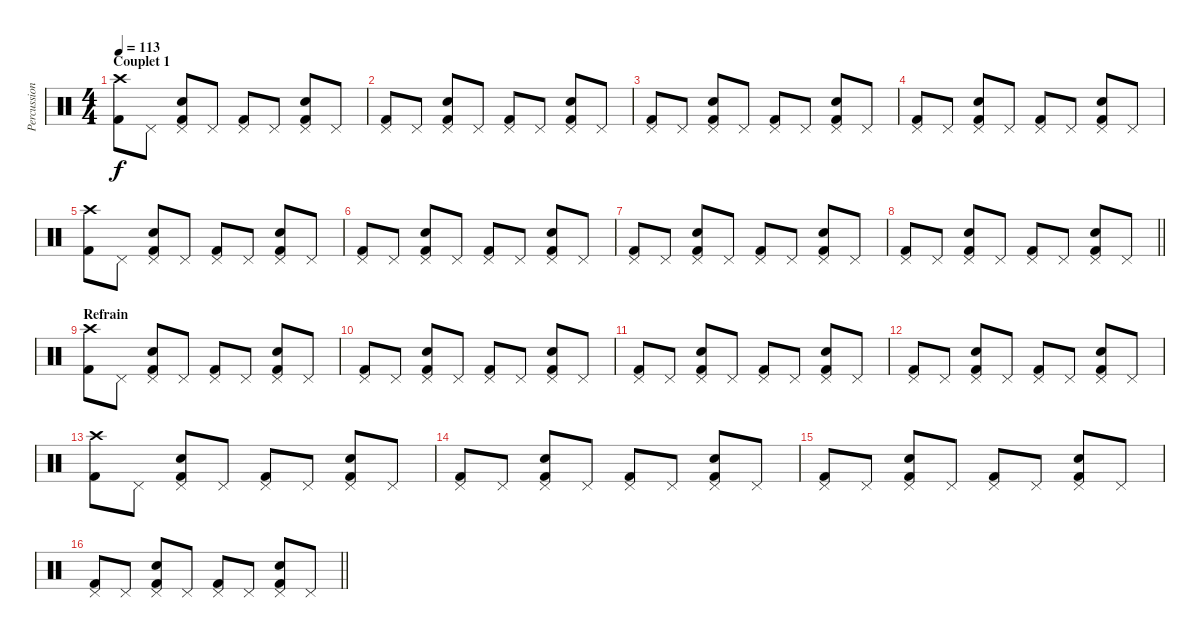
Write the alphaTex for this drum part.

\track ("Percussions" "Percussion") {instrument percussion}
\staff {score}
\articulation defaults
\ts (4 4)
\section ("" "Couplet 1")
\tempo 113
\clef neutral
\ks c
("Crash high (hit)" "Kick (hit) 2").8{dy f} "Pedal Hi-Hat (hit)".8 ("Pedal Hi-Hat (hit)" "Electric Snare (hit)" "Kick (hit) 2").8 "Pedal Hi-Hat (hit)".8 ("Pedal Hi-Hat (hit)" "Kick (hit) 2").8 "Pedal Hi-Hat (hit)".8 ("Pedal Hi-Hat (hit)" "Electric Snare (hit)" "Kick (hit) 2").8 "Pedal Hi-Hat (hit)".8 |
("Pedal Hi-Hat (hit)" "Kick (hit) 2").8 "Pedal Hi-Hat (hit)".8 ("Pedal Hi-Hat (hit)" "Electric Snare (hit)" "Kick (hit) 2").8 "Pedal Hi-Hat (hit)".8 ("Pedal Hi-Hat (hit)" "Kick (hit) 2").8 "Pedal Hi-Hat (hit)".8 ("Pedal Hi-Hat (hit)" "Electric Snare (hit)" "Kick (hit) 2").8 "Pedal Hi-Hat (hit)".8 |
("Pedal Hi-Hat (hit)" "Kick (hit) 2").8 "Pedal Hi-Hat (hit)".8 ("Pedal Hi-Hat (hit)" "Electric Snare (hit)" "Kick (hit) 2").8 "Pedal Hi-Hat (hit)".8 ("Pedal Hi-Hat (hit)" "Kick (hit) 2").8 "Pedal Hi-Hat (hit)".8 ("Pedal Hi-Hat (hit)" "Electric Snare (hit)" "Kick (hit) 2").8 "Pedal Hi-Hat (hit)".8 |
("Pedal Hi-Hat (hit)" "Kick (hit) 2").8 "Pedal Hi-Hat (hit)".8 ("Pedal Hi-Hat (hit)" "Electric Snare (hit)" "Kick (hit) 2").8 "Pedal Hi-Hat (hit)".8 ("Pedal Hi-Hat (hit)" "Kick (hit) 2").8 "Pedal Hi-Hat (hit)".8 ("Pedal Hi-Hat (hit)" "Electric Snare (hit)" "Kick (hit) 2").8 "Pedal Hi-Hat (hit)".8 |
("Crash high (hit)" "Kick (hit) 2").8 "Pedal Hi-Hat (hit)".8 ("Pedal Hi-Hat (hit)" "Electric Snare (hit)" "Kick (hit) 2").8 "Pedal Hi-Hat (hit)".8 ("Pedal Hi-Hat (hit)" "Kick (hit) 2").8 "Pedal Hi-Hat (hit)".8 ("Pedal Hi-Hat (hit)" "Electric Snare (hit)" "Kick (hit) 2").8 "Pedal Hi-Hat (hit)".8 |
("Pedal Hi-Hat (hit)" "Kick (hit) 2").8 "Pedal Hi-Hat (hit)".8 ("Pedal Hi-Hat (hit)" "Electric Snare (hit)" "Kick (hit) 2").8 "Pedal Hi-Hat (hit)".8 ("Pedal Hi-Hat (hit)" "Kick (hit) 2").8 "Pedal Hi-Hat (hit)".8 ("Pedal Hi-Hat (hit)" "Electric Snare (hit)" "Kick (hit) 2").8 "Pedal Hi-Hat (hit)".8 |
("Pedal Hi-Hat (hit)" "Kick (hit) 2").8 "Pedal Hi-Hat (hit)".8 ("Pedal Hi-Hat (hit)" "Electric Snare (hit)" "Kick (hit) 2").8 "Pedal Hi-Hat (hit)".8 ("Pedal Hi-Hat (hit)" "Kick (hit) 2").8 "Pedal Hi-Hat (hit)".8 ("Pedal Hi-Hat (hit)" "Electric Snare (hit)" "Kick (hit) 2").8 "Pedal Hi-Hat (hit)".8 |
\barLineRight lightlight
("Pedal Hi-Hat (hit)" "Kick (hit) 2").8 "Pedal Hi-Hat (hit)".8 ("Pedal Hi-Hat (hit)" "Electric Snare (hit)" "Kick (hit) 2").8 "Pedal Hi-Hat (hit)".8 ("Pedal Hi-Hat (hit)" "Kick (hit) 2").8 "Pedal Hi-Hat (hit)".8 ("Pedal Hi-Hat (hit)" "Electric Snare (hit)" "Kick (hit) 2").8 "Pedal Hi-Hat (hit)".8 |
\section ("" "Refrain")
("Crash high (hit)" "Kick (hit) 2").8 "Pedal Hi-Hat (hit)".8 ("Pedal Hi-Hat (hit)" "Electric Snare (hit)" "Kick (hit) 2").8 "Pedal Hi-Hat (hit)".8 ("Pedal Hi-Hat (hit)" "Kick (hit) 2").8 "Pedal Hi-Hat (hit)".8 ("Pedal Hi-Hat (hit)" "Electric Snare (hit)" "Kick (hit) 2").8 "Pedal Hi-Hat (hit)".8 |
("Pedal Hi-Hat (hit)" "Kick (hit) 2").8 "Pedal Hi-Hat (hit)".8 ("Pedal Hi-Hat (hit)" "Electric Snare (hit)" "Kick (hit) 2").8 "Pedal Hi-Hat (hit)".8 ("Pedal Hi-Hat (hit)" "Kick (hit) 2").8 "Pedal Hi-Hat (hit)".8 ("Pedal Hi-Hat (hit)" "Electric Snare (hit)" "Kick (hit) 2").8 "Pedal Hi-Hat (hit)".8 |
("Pedal Hi-Hat (hit)" "Kick (hit) 2").8 "Pedal Hi-Hat (hit)".8 ("Pedal Hi-Hat (hit)" "Electric Snare (hit)" "Kick (hit) 2").8 "Pedal Hi-Hat (hit)".8 ("Pedal Hi-Hat (hit)" "Kick (hit) 2").8 "Pedal Hi-Hat (hit)".8 ("Pedal Hi-Hat (hit)" "Electric Snare (hit)" "Kick (hit) 2").8 "Pedal Hi-Hat (hit)".8 |
("Pedal Hi-Hat (hit)" "Kick (hit) 2").8 "Pedal Hi-Hat (hit)".8 ("Pedal Hi-Hat (hit)" "Electric Snare (hit)" "Kick (hit) 2").8 "Pedal Hi-Hat (hit)".8 ("Pedal Hi-Hat (hit)" "Kick (hit) 2").8 "Pedal Hi-Hat (hit)".8 ("Pedal Hi-Hat (hit)" "Electric Snare (hit)" "Kick (hit) 2").8 "Pedal Hi-Hat (hit)".8 |
("Crash high (hit)" "Kick (hit) 2").8 "Pedal Hi-Hat (hit)".8 ("Pedal Hi-Hat (hit)" "Electric Snare (hit)" "Kick (hit) 2").8 "Pedal Hi-Hat (hit)".8 ("Pedal Hi-Hat (hit)" "Kick (hit) 2").8 "Pedal Hi-Hat (hit)".8 ("Pedal Hi-Hat (hit)" "Electric Snare (hit)" "Kick (hit) 2").8 "Pedal Hi-Hat (hit)".8 |
("Pedal Hi-Hat (hit)" "Kick (hit) 2").8 "Pedal Hi-Hat (hit)".8 ("Pedal Hi-Hat (hit)" "Electric Snare (hit)" "Kick (hit) 2").8 "Pedal Hi-Hat (hit)".8 ("Pedal Hi-Hat (hit)" "Kick (hit) 2").8 "Pedal Hi-Hat (hit)".8 ("Pedal Hi-Hat (hit)" "Electric Snare (hit)" "Kick (hit) 2").8 "Pedal Hi-Hat (hit)".8 |
("Pedal Hi-Hat (hit)" "Kick (hit) 2").8 "Pedal Hi-Hat (hit)".8 ("Pedal Hi-Hat (hit)" "Electric Snare (hit)" "Kick (hit) 2").8 "Pedal Hi-Hat (hit)".8 ("Pedal Hi-Hat (hit)" "Kick (hit) 2").8 "Pedal Hi-Hat (hit)".8 ("Pedal Hi-Hat (hit)" "Electric Snare (hit)" "Kick (hit) 2").8 "Pedal Hi-Hat (hit)".8 |
\barLineRight lightlight
("Pedal Hi-Hat (hit)" "Kick (hit) 2").8 "Pedal Hi-Hat (hit)".8 ("Pedal Hi-Hat (hit)" "Electric Snare (hit)" "Kick (hit) 2").8 "Pedal Hi-Hat (hit)".8 ("Pedal Hi-Hat (hit)" "Kick (hit) 2").8 "Pedal Hi-Hat (hit)".8 ("Pedal Hi-Hat (hit)" "Electric Snare (hit)" "Kick (hit) 2").8 "Pedal Hi-Hat (hit)".8
